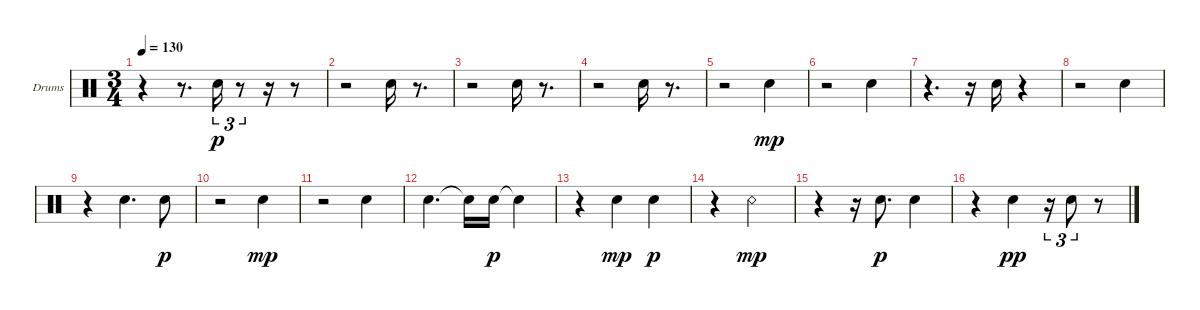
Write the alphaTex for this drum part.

\bracketExtendMode groupsimilarinstruments
\firstSystemTrackNameOrientation horizontal
\otherSystemsTrackNameOrientation horizontal
\track ("Drums" "Drums") {instrument percussion}
\staff {score}
\articulation defaults
\ts (3 4)
\tempo 130
\clef neutral
\ks c
r.4{dy p} r.8{d} "Snare (hit) 2".16{tu (3 2)} r.8{tu (3 2)} r.16 r.8 |
r.2 "Snare (hit) 2".16 r.8{d} |
r.2 "Snare (hit) 2".16 r.8{d} |
r.2 "Snare (hit) 2".16 r.8{d} |
r.2 "Snare (hit) 2".4{dy mp} |
r.2 "Snare (hit) 2".4 |
r.4{d} r.16 "Snare (hit) 2".16 r.4 |
r.2 "Snare (hit) 2".4 |
r.4 "Snare (hit) 2".4{d} "Snare (hit) 2".8{dy p} |
r.2 "Snare (hit) 2".4{dy mp} |
r.2 "Snare (hit) 2".4 |
"Snare (hit) 2".4{d} "Snare (hit) 2"{t}.16 "Snare (hit) 2".16{dy p} "Snare (hit) 2"{t}.4 |
r.4 "Snare (hit) 2".4{dy mp} "Snare (hit) 2".4{dy p} |
r.4 "Snare (rim shot)".2{dy mp} |
r.4 r.16 "Snare (hit) 2".8{d dy p} "Snare (hit) 2".4 |
r.4 "Snare (hit) 2".4{dy pp} r.16{tu (3 2)} "Snare (hit) 2".8{tu (3 2)} r.8
